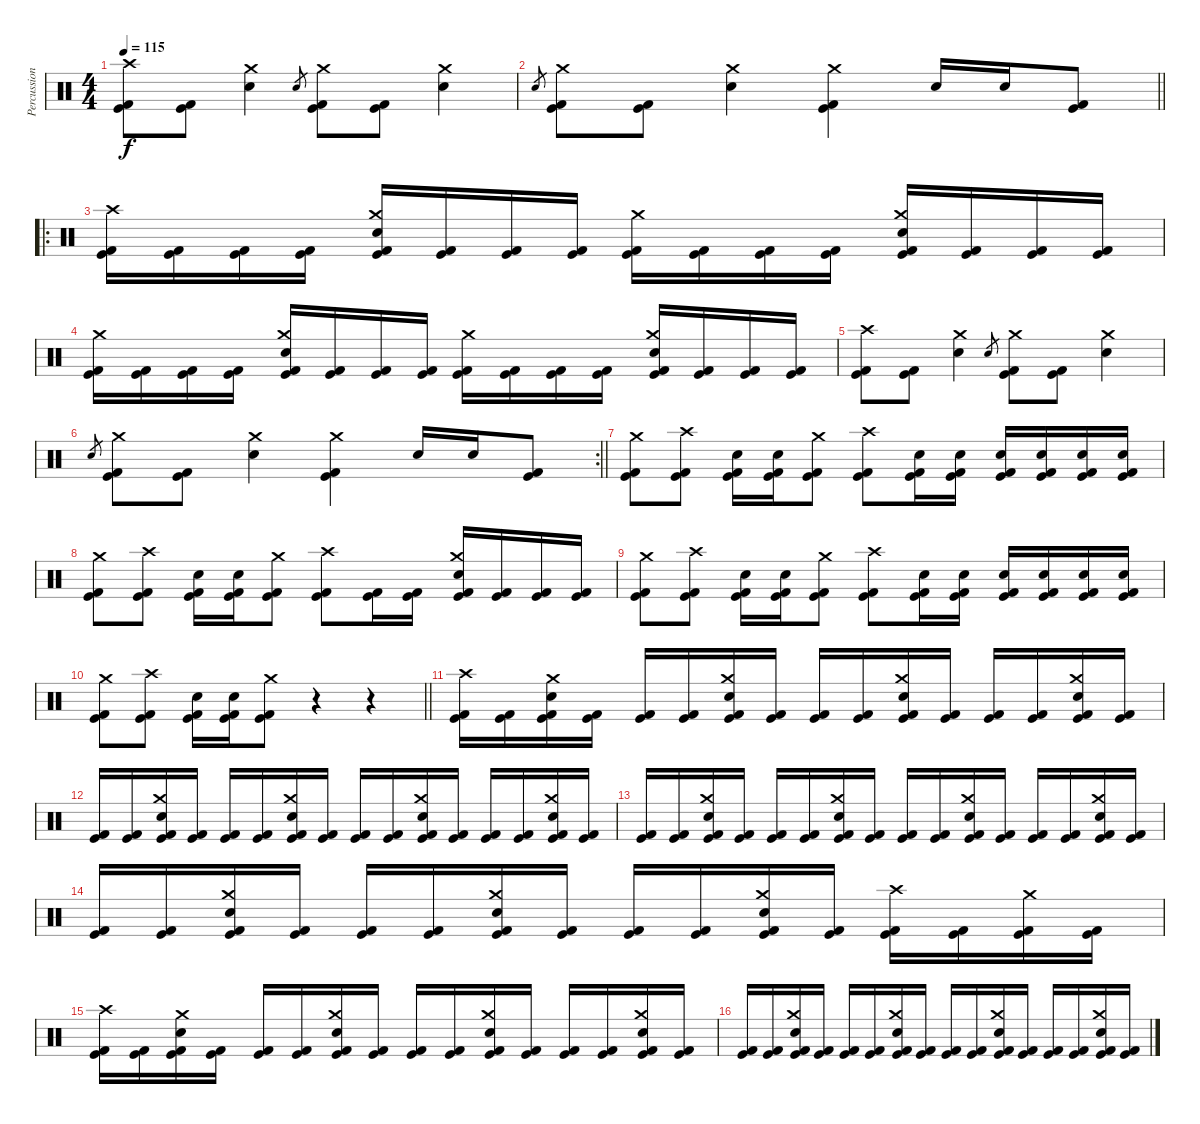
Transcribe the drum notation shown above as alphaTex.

\track ("Percussion" "Percussion") {instrument percussion}
\staff {score}
\articulation defaults
\ts (4 4)
\tempo 115
\clef neutral
\ks c
("Crash high (hit)" "Kick (hit)" "Kick (hit) 2").8{dy f} ("Kick (hit)" "Kick (hit) 2").8 ("Crash medium (hit)" "Electric Snare (hit)").4 "Electric Snare (hit)".8{gr} ("Crash medium (hit)" "Kick (hit)" "Kick (hit) 2").8 ("Kick (hit)" "Kick (hit) 2").8 ("Crash medium (hit)" "Electric Snare (hit)").4 |
\barLineRight lightlight "Electric Snare (hit)".8{gr}
("Crash medium (hit)" "Kick (hit)" "Kick (hit) 2").8 ("Kick (hit)" "Kick (hit) 2").8 ("Crash medium (hit)" "Electric Snare (hit)").4 ("Crash medium (hit)" "Kick (hit)" "Kick (hit) 2").4 "Electric Snare (hit)".16 "Electric Snare (hit)".16 ("Kick (hit)" "Kick (hit) 2").8 |
\ro
\section ("" "")
("Crash high (hit)" "Kick (hit)" "Kick (hit) 2").16 ("Kick (hit)" "Kick (hit) 2").16 ("Kick (hit)" "Kick (hit) 2").16 ("Kick (hit)" "Kick (hit) 2").16 ("Crash medium (hit)" "Electric Snare (hit)" "Kick (hit)" "Kick (hit) 2").16 ("Kick (hit)" "Kick (hit) 2").16 ("Kick (hit)" "Kick (hit) 2").16 ("Kick (hit)" "Kick (hit) 2").16 ("Crash medium (hit)" "Kick (hit)" "Kick (hit) 2").16 ("Kick (hit)" "Kick (hit) 2").16 ("Kick (hit)" "Kick (hit) 2").16 ("Kick (hit)" "Kick (hit) 2").16 ("Crash medium (hit)" "Electric Snare (hit)" "Kick (hit)" "Kick (hit) 2").16 ("Kick (hit)" "Kick (hit) 2").16 ("Kick (hit)" "Kick (hit) 2").16 ("Kick (hit)" "Kick (hit) 2").16 |
("Crash medium (hit)" "Kick (hit)" "Kick (hit) 2").16 ("Kick (hit)" "Kick (hit) 2").16 ("Kick (hit)" "Kick (hit) 2").16 ("Kick (hit)" "Kick (hit) 2").16 ("Crash medium (hit)" "Electric Snare (hit)" "Kick (hit)" "Kick (hit) 2").16 ("Kick (hit)" "Kick (hit) 2").16 ("Kick (hit)" "Kick (hit) 2").16 ("Kick (hit)" "Kick (hit) 2").16 ("Crash medium (hit)" "Kick (hit)" "Kick (hit) 2").16 ("Kick (hit)" "Kick (hit) 2").16 ("Kick (hit)" "Kick (hit) 2").16 ("Kick (hit)" "Kick (hit) 2").16 ("Crash medium (hit)" "Electric Snare (hit)" "Kick (hit)" "Kick (hit) 2").16 ("Kick (hit)" "Kick (hit) 2").16 ("Kick (hit)" "Kick (hit) 2").16 ("Kick (hit)" "Kick (hit) 2").16 |
("Crash high (hit)" "Kick (hit)" "Kick (hit) 2").8 ("Kick (hit)" "Kick (hit) 2").8 ("Crash medium (hit)" "Electric Snare (hit)").4 "Electric Snare (hit)".8{gr} ("Crash medium (hit)" "Kick (hit)" "Kick (hit) 2").8 ("Kick (hit)" "Kick (hit) 2").8 ("Crash medium (hit)" "Electric Snare (hit)").4 |
\rc 2
\barLineRight lightlight "Electric Snare (hit)".8{gr}
("Crash medium (hit)" "Kick (hit)" "Kick (hit) 2").8 ("Kick (hit)" "Kick (hit) 2").8 ("Crash medium (hit)" "Electric Snare (hit)").4 ("Crash medium (hit)" "Kick (hit)" "Kick (hit) 2").4 "Electric Snare (hit)".16 "Electric Snare (hit)".16 ("Kick (hit)" "Kick (hit) 2").8 |
\section ("" "")
("Crash medium (hit)" "Kick (hit)" "Kick (hit) 2").8 ("Crash high (hit)" "Kick (hit)" "Kick (hit) 2").8 ("Electric Snare (hit)" "Kick (hit)" "Kick (hit) 2").16 ("Electric Snare (hit)" "Kick (hit)" "Kick (hit) 2").16 ("Crash medium (hit)" "Kick (hit)" "Kick (hit) 2").8 ("Crash high (hit)" "Kick (hit)" "Kick (hit) 2").8 ("Electric Snare (hit)" "Kick (hit)" "Kick (hit) 2").16 ("Electric Snare (hit)" "Kick (hit)" "Kick (hit) 2").16 ("Electric Snare (hit)" "Kick (hit)" "Kick (hit) 2").16 ("Electric Snare (hit)" "Kick (hit)" "Kick (hit) 2").16 ("Electric Snare (hit)" "Kick (hit)" "Kick (hit) 2").16 ("Electric Snare (hit)" "Kick (hit)" "Kick (hit) 2").16 |
("Crash medium (hit)" "Kick (hit)" "Kick (hit) 2").8 ("Crash high (hit)" "Kick (hit)" "Kick (hit) 2").8 ("Electric Snare (hit)" "Kick (hit)" "Kick (hit) 2").16 ("Electric Snare (hit)" "Kick (hit)" "Kick (hit) 2").16 ("Crash medium (hit)" "Kick (hit)" "Kick (hit) 2").8 ("Crash high (hit)" "Kick (hit)" "Kick (hit) 2").8 ("Kick (hit)" "Kick (hit) 2").16 ("Kick (hit)" "Kick (hit) 2").16 ("Crash medium (hit)" "Electric Snare (hit)" "Kick (hit)" "Kick (hit) 2").16 ("Kick (hit)" "Kick (hit) 2").16 ("Kick (hit)" "Kick (hit) 2").16 ("Kick (hit)" "Kick (hit) 2").16 |
("Crash medium (hit)" "Kick (hit)" "Kick (hit) 2").8 ("Crash high (hit)" "Kick (hit)" "Kick (hit) 2").8 ("Electric Snare (hit)" "Kick (hit)" "Kick (hit) 2").16 ("Electric Snare (hit)" "Kick (hit)" "Kick (hit) 2").16 ("Crash medium (hit)" "Kick (hit)" "Kick (hit) 2").8 ("Crash high (hit)" "Kick (hit)" "Kick (hit) 2").8 ("Electric Snare (hit)" "Kick (hit)" "Kick (hit) 2").16 ("Electric Snare (hit)" "Kick (hit)" "Kick (hit) 2").16 ("Electric Snare (hit)" "Kick (hit)" "Kick (hit) 2").16 ("Electric Snare (hit)" "Kick (hit)" "Kick (hit) 2").16 ("Electric Snare (hit)" "Kick (hit)" "Kick (hit) 2").16 ("Electric Snare (hit)" "Kick (hit)" "Kick (hit) 2").16 |
\barLineRight lightlight
("Crash medium (hit)" "Kick (hit)" "Kick (hit) 2").8 ("Crash high (hit)" "Kick (hit)" "Kick (hit) 2").8 ("Electric Snare (hit)" "Kick (hit)" "Kick (hit) 2").16 ("Electric Snare (hit)" "Kick (hit)" "Kick (hit) 2").16 ("Crash medium (hit)" "Kick (hit)" "Kick (hit) 2").8 r.4 r.4 |
\section ("" "")
("Crash high (hit)" "Kick (hit)" "Kick (hit) 2").16 ("Kick (hit)" "Kick (hit) 2").16 ("Crash medium (hit)" "Electric Snare (hit)" "Kick (hit)" "Kick (hit) 2").16 ("Kick (hit)" "Kick (hit) 2").16 ("Kick (hit)" "Kick (hit) 2").16 ("Kick (hit)" "Kick (hit) 2").16 ("Crash medium (hit)" "Electric Snare (hit)" "Kick (hit)" "Kick (hit) 2").16 ("Kick (hit)" "Kick (hit) 2").16 ("Kick (hit)" "Kick (hit) 2").16 ("Kick (hit)" "Kick (hit) 2").16 ("Crash medium (hit)" "Electric Snare (hit)" "Kick (hit)" "Kick (hit) 2").16 ("Kick (hit)" "Kick (hit) 2").16 ("Kick (hit)" "Kick (hit) 2").16 ("Kick (hit)" "Kick (hit) 2").16 ("Crash medium (hit)" "Electric Snare (hit)" "Kick (hit)" "Kick (hit) 2").16 ("Kick (hit)" "Kick (hit) 2").16 |
("Kick (hit)" "Kick (hit) 2").16 ("Kick (hit)" "Kick (hit) 2").16 ("Crash medium (hit)" "Electric Snare (hit)" "Kick (hit)" "Kick (hit) 2").16 ("Kick (hit)" "Kick (hit) 2").16 ("Kick (hit)" "Kick (hit) 2").16 ("Kick (hit)" "Kick (hit) 2").16 ("Crash medium (hit)" "Electric Snare (hit)" "Kick (hit)" "Kick (hit) 2").16 ("Kick (hit)" "Kick (hit) 2").16 ("Kick (hit)" "Kick (hit) 2").16 ("Kick (hit)" "Kick (hit) 2").16 ("Crash medium (hit)" "Electric Snare (hit)" "Kick (hit)" "Kick (hit) 2").16 ("Kick (hit)" "Kick (hit) 2").16 ("Kick (hit)" "Kick (hit) 2").16 ("Kick (hit)" "Kick (hit) 2").16 ("Crash medium (hit)" "Electric Snare (hit)" "Kick (hit)" "Kick (hit) 2").16 ("Kick (hit)" "Kick (hit) 2").16 |
("Kick (hit)" "Kick (hit) 2").16 ("Kick (hit)" "Kick (hit) 2").16 ("Crash medium (hit)" "Electric Snare (hit)" "Kick (hit)" "Kick (hit) 2").16 ("Kick (hit)" "Kick (hit) 2").16 ("Kick (hit)" "Kick (hit) 2").16 ("Kick (hit)" "Kick (hit) 2").16 ("Crash medium (hit)" "Electric Snare (hit)" "Kick (hit)" "Kick (hit) 2").16 ("Kick (hit)" "Kick (hit) 2").16 ("Kick (hit)" "Kick (hit) 2").16 ("Kick (hit)" "Kick (hit) 2").16 ("Crash medium (hit)" "Electric Snare (hit)" "Kick (hit)" "Kick (hit) 2").16 ("Kick (hit)" "Kick (hit) 2").16 ("Kick (hit)" "Kick (hit) 2").16 ("Kick (hit)" "Kick (hit) 2").16 ("Crash medium (hit)" "Electric Snare (hit)" "Kick (hit)" "Kick (hit) 2").16 ("Kick (hit)" "Kick (hit) 2").16 |
("Kick (hit)" "Kick (hit) 2").16 ("Kick (hit)" "Kick (hit) 2").16 ("Crash medium (hit)" "Electric Snare (hit)" "Kick (hit)" "Kick (hit) 2").16 ("Kick (hit)" "Kick (hit) 2").16 ("Kick (hit)" "Kick (hit) 2").16 ("Kick (hit)" "Kick (hit) 2").16 ("Crash medium (hit)" "Electric Snare (hit)" "Kick (hit)" "Kick (hit) 2").16 ("Kick (hit)" "Kick (hit) 2").16 ("Kick (hit)" "Kick (hit) 2").16 ("Kick (hit)" "Kick (hit) 2").16 ("Crash medium (hit)" "Electric Snare (hit)" "Kick (hit)" "Kick (hit) 2").16 ("Kick (hit)" "Kick (hit) 2").16 ("Crash high (hit)" "Kick (hit)" "Kick (hit) 2").16 ("Kick (hit)" "Kick (hit) 2").16 ("Crash medium (hit)" "Kick (hit)" "Kick (hit) 2").16 ("Kick (hit)" "Kick (hit) 2").16 |
("Crash high (hit)" "Kick (hit)" "Kick (hit) 2").16 ("Kick (hit)" "Kick (hit) 2").16 ("Crash medium (hit)" "Electric Snare (hit)" "Kick (hit)" "Kick (hit) 2").16 ("Kick (hit)" "Kick (hit) 2").16 ("Kick (hit)" "Kick (hit) 2").16 ("Kick (hit)" "Kick (hit) 2").16 ("Crash medium (hit)" "Electric Snare (hit)" "Kick (hit)" "Kick (hit) 2").16 ("Kick (hit)" "Kick (hit) 2").16 ("Kick (hit)" "Kick (hit) 2").16 ("Kick (hit)" "Kick (hit) 2").16 ("Crash medium (hit)" "Electric Snare (hit)" "Kick (hit)" "Kick (hit) 2").16 ("Kick (hit)" "Kick (hit) 2").16 ("Kick (hit)" "Kick (hit) 2").16 ("Kick (hit)" "Kick (hit) 2").16 ("Crash medium (hit)" "Electric Snare (hit)" "Kick (hit)" "Kick (hit) 2").16 ("Kick (hit)" "Kick (hit) 2").16 |
("Kick (hit)" "Kick (hit) 2").16 ("Kick (hit)" "Kick (hit) 2").16 ("Crash medium (hit)" "Electric Snare (hit)" "Kick (hit)" "Kick (hit) 2").16 ("Kick (hit)" "Kick (hit) 2").16 ("Kick (hit)" "Kick (hit) 2").16 ("Kick (hit)" "Kick (hit) 2").16 ("Crash medium (hit)" "Electric Snare (hit)" "Kick (hit)" "Kick (hit) 2").16 ("Kick (hit)" "Kick (hit) 2").16 ("Kick (hit)" "Kick (hit) 2").16 ("Kick (hit)" "Kick (hit) 2").16 ("Crash medium (hit)" "Electric Snare (hit)" "Kick (hit)" "Kick (hit) 2").16 ("Kick (hit)" "Kick (hit) 2").16 ("Kick (hit)" "Kick (hit) 2").16 ("Kick (hit)" "Kick (hit) 2").16 ("Crash medium (hit)" "Electric Snare (hit)" "Kick (hit)" "Kick (hit) 2").16 ("Kick (hit)" "Kick (hit) 2").16
